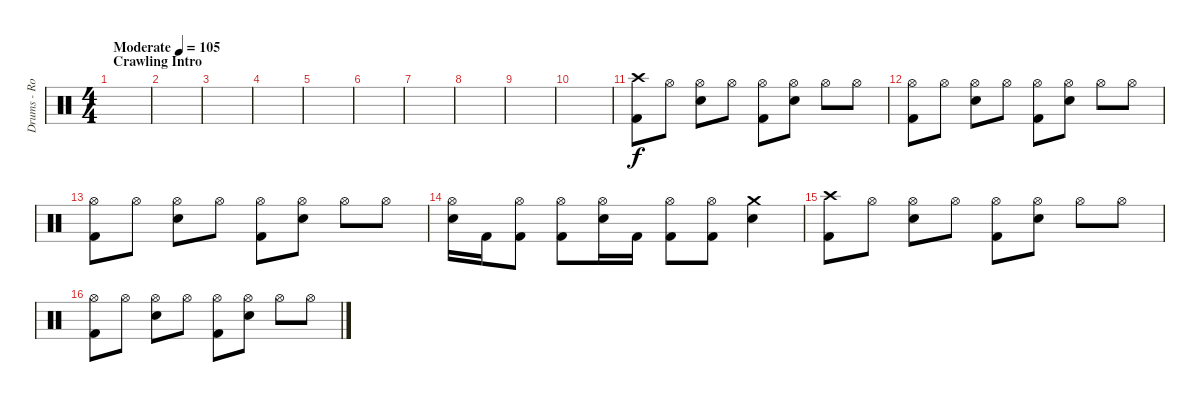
\track ("Drums - Rob Bourdon" "Drums - Ro") {instrument percussion}
\staff {score}
\articulation defaults
\ts (4 4)
\section ("" "Crawling Intro")
\tempo (105 "Moderate")
\clef neutral
\ks c
|
|
|
|
|
|
|
|
|
|
("Crash high (hit)" "Kick (hit) 2").8 "Hi-Hat (open)".8 ("Hi-Hat (open)" "Snare (hit) 2").8 "Hi-Hat (open)".8 ("Hi-Hat (open)" "Kick (hit) 2").8 ("Hi-Hat (open)" "Snare (hit) 2").8 "Hi-Hat (open)".8 "Hi-Hat (open)".8 |
("Hi-Hat (open)" "Kick (hit) 2").8 "Hi-Hat (open)".8 ("Hi-Hat (open)" "Snare (hit) 2").8 "Hi-Hat (open)".8 ("Hi-Hat (open)" "Kick (hit) 2").8 ("Hi-Hat (open)" "Snare (hit) 2").8 "Hi-Hat (open)".8 "Hi-Hat (open)".8 |
("Hi-Hat (open)" "Kick (hit) 2").8 "Hi-Hat (open)".8 ("Hi-Hat (open)" "Snare (hit) 2").8 "Hi-Hat (open)".8 ("Hi-Hat (open)" "Kick (hit) 2").8 ("Hi-Hat (open)" "Snare (hit) 2").8 "Hi-Hat (open)".8 "Hi-Hat (open)".8 |
("Hi-Hat (open)" "Snare (hit) 2").16 "Kick (hit) 2".16 ("Hi-Hat (open)" "Kick (hit) 2").8 ("Hi-Hat (open)" "Kick (hit) 2").8 ("Hi-Hat (open)" "Snare (hit) 2").16 "Kick (hit) 2".16 ("Hi-Hat (open)" "Kick (hit) 2").8 ("Hi-Hat (open)" "Kick (hit) 2").8 ("Crash medium (hit)" "Snare (hit) 2").4 |
("Crash high (hit)" "Kick (hit) 2").8 "Hi-Hat (open)".8 ("Hi-Hat (open)" "Snare (hit) 2").8 "Hi-Hat (open)".8 ("Hi-Hat (open)" "Kick (hit) 2").8 ("Hi-Hat (open)" "Snare (hit) 2").8 "Hi-Hat (open)".8 "Hi-Hat (open)".8 |
("Hi-Hat (open)" "Kick (hit) 2").8 "Hi-Hat (open)".8 ("Hi-Hat (open)" "Snare (hit) 2").8 "Hi-Hat (open)".8 ("Hi-Hat (open)" "Kick (hit) 2").8 ("Hi-Hat (open)" "Snare (hit) 2").8 "Hi-Hat (open)".8 "Hi-Hat (open)".8
